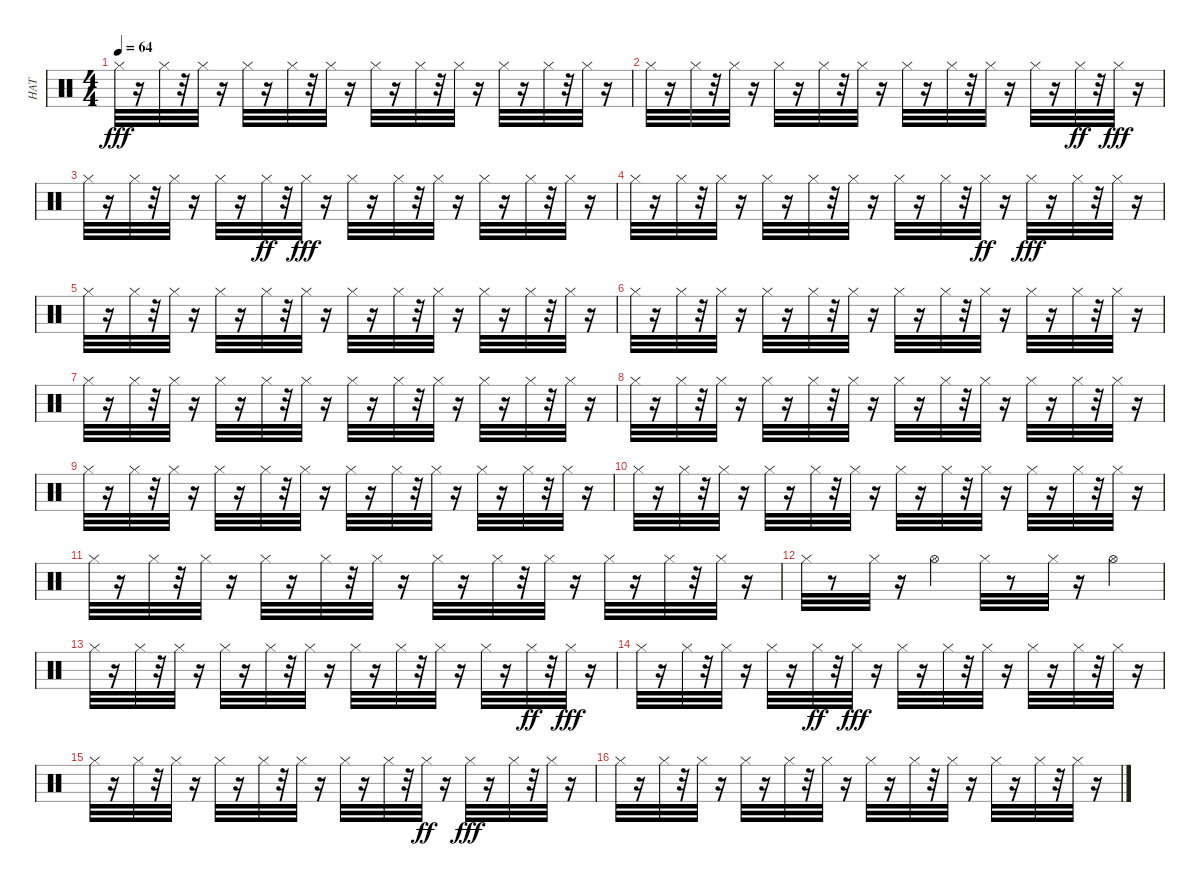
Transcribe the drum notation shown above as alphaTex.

\track ("HAT" "HAT") {instrument percussion}
\staff {score}
\articulation defaults
\ts (4 4)
\tempo 64
\clef neutral
\ks c "Hi-Hat (closed)".32{dy fff}
r.16 "Hi-Hat (closed)".32 r.32 "Hi-Hat (closed)".32 r.16 "Hi-Hat (closed)".32 r.16 "Hi-Hat (closed)".32 r.32 "Hi-Hat (closed)".32 r.16 "Hi-Hat (closed)".32 r.16 "Hi-Hat (closed)".32 r.32 "Hi-Hat (closed)".32 r.16 "Hi-Hat (closed)".32 r.16 "Hi-Hat (closed)".32 r.32 "Hi-Hat (closed)".32 r.16 |
"Hi-Hat (closed)".32 r.16 "Hi-Hat (closed)".32 r.32 "Hi-Hat (closed)".32 r.16 "Hi-Hat (closed)".32 r.16 "Hi-Hat (closed)".32 r.32 "Hi-Hat (closed)".32 r.16 "Hi-Hat (closed)".32 r.16 "Hi-Hat (closed)".32 r.32 "Hi-Hat (closed)".32 r.16 "Hi-Hat (closed)".32 r.16 "Hi-Hat (closed)".32{dy ff} r.32 "Hi-Hat (closed)".32{dy fff} r.16 |
"Hi-Hat (closed)".32 r.16 "Hi-Hat (closed)".32 r.32 "Hi-Hat (closed)".32 r.16 "Hi-Hat (closed)".32 r.16 "Hi-Hat (closed)".32{dy ff} r.32 "Hi-Hat (closed)".32{dy fff} r.16 "Hi-Hat (closed)".32 r.16 "Hi-Hat (closed)".32 r.32 "Hi-Hat (closed)".32 r.16 "Hi-Hat (closed)".32 r.16 "Hi-Hat (closed)".32 r.32 "Hi-Hat (closed)".32 r.16 |
"Hi-Hat (closed)".32 r.16 "Hi-Hat (closed)".32 r.32 "Hi-Hat (closed)".32 r.16 "Hi-Hat (closed)".32 r.16 "Hi-Hat (closed)".32 r.32 "Hi-Hat (closed)".32 r.16 "Hi-Hat (closed)".32 r.16 "Hi-Hat (closed)".32 r.32 "Hi-Hat (closed)".32{dy ff} r.16 "Hi-Hat (closed)".32{dy fff} r.16 "Hi-Hat (closed)".32 r.32 "Hi-Hat (closed)".32 r.16 |
"Hi-Hat (closed)".32 r.16 "Hi-Hat (closed)".32 r.32 "Hi-Hat (closed)".32 r.16 "Hi-Hat (closed)".32 r.16 "Hi-Hat (closed)".32 r.32 "Hi-Hat (closed)".32 r.16 "Hi-Hat (closed)".32 r.16 "Hi-Hat (closed)".32 r.32 "Hi-Hat (closed)".32 r.16 "Hi-Hat (closed)".32 r.16 "Hi-Hat (closed)".32 r.32 "Hi-Hat (closed)".32 r.16 |
"Hi-Hat (closed)".32 r.16 "Hi-Hat (closed)".32 r.32 "Hi-Hat (closed)".32 r.16 "Hi-Hat (closed)".32 r.16 "Hi-Hat (closed)".32 r.32 "Hi-Hat (closed)".32 r.16 "Hi-Hat (closed)".32 r.16 "Hi-Hat (closed)".32 r.32 "Hi-Hat (closed)".32 r.16 "Hi-Hat (closed)".32 r.16 "Hi-Hat (closed)".32 r.32 "Hi-Hat (closed)".32 r.16 |
"Hi-Hat (closed)".32 r.16 "Hi-Hat (closed)".32 r.32 "Hi-Hat (closed)".32 r.16 "Hi-Hat (closed)".32 r.16 "Hi-Hat (closed)".32 r.32 "Hi-Hat (closed)".32 r.16 "Hi-Hat (closed)".32 r.16 "Hi-Hat (closed)".32 r.32 "Hi-Hat (closed)".32 r.16 "Hi-Hat (closed)".32 r.16 "Hi-Hat (closed)".32 r.32 "Hi-Hat (closed)".32 r.16 |
"Hi-Hat (closed)".32 r.16 "Hi-Hat (closed)".32 r.32 "Hi-Hat (closed)".32 r.16 "Hi-Hat (closed)".32 r.16 "Hi-Hat (closed)".32 r.32 "Hi-Hat (closed)".32 r.16 "Hi-Hat (closed)".32 r.16 "Hi-Hat (closed)".32 r.32 "Hi-Hat (closed)".32 r.16 "Hi-Hat (closed)".32 r.16 "Hi-Hat (closed)".32 r.32 "Hi-Hat (closed)".32 r.16 |
"Hi-Hat (closed)".32 r.16 "Hi-Hat (closed)".32 r.32 "Hi-Hat (closed)".32 r.16 "Hi-Hat (closed)".32 r.16 "Hi-Hat (closed)".32 r.32 "Hi-Hat (closed)".32 r.16 "Hi-Hat (closed)".32 r.16 "Hi-Hat (closed)".32 r.32 "Hi-Hat (closed)".32 r.16 "Hi-Hat (closed)".32 r.16 "Hi-Hat (closed)".32 r.32 "Hi-Hat (closed)".32 r.16 |
"Hi-Hat (closed)".32 r.16 "Hi-Hat (closed)".32 r.32 "Hi-Hat (closed)".32 r.16 "Hi-Hat (closed)".32 r.16 "Hi-Hat (closed)".32 r.32 "Hi-Hat (closed)".32 r.16 "Hi-Hat (closed)".32 r.16 "Hi-Hat (closed)".32 r.32 "Hi-Hat (closed)".32 r.16 "Hi-Hat (closed)".32 r.16 "Hi-Hat (closed)".32 r.32 "Hi-Hat (closed)".32 r.16 |
"Hi-Hat (closed)".32 r.16 "Hi-Hat (closed)".32 r.32 "Hi-Hat (closed)".32 r.16 "Hi-Hat (closed)".32 r.16 "Hi-Hat (closed)".32 r.32 "Hi-Hat (closed)".32 r.16 "Hi-Hat (closed)".32 r.16 "Hi-Hat (closed)".32 r.32 "Hi-Hat (closed)".32 r.16 "Hi-Hat (closed)".32 r.16 "Hi-Hat (closed)".32 r.32 "Hi-Hat (closed)".32 r.16 |
"Hi-Hat (closed)".32 r.8 "Hi-Hat (closed)".32 r.16 "Hi-Hat (open)".4 "Hi-Hat (closed)".32 r.8 "Hi-Hat (closed)".32 r.16 "Hi-Hat (open)".4 |
"Hi-Hat (closed)".32 r.16 "Hi-Hat (closed)".32 r.32 "Hi-Hat (closed)".32 r.16 "Hi-Hat (closed)".32 r.16 "Hi-Hat (closed)".32 r.32 "Hi-Hat (closed)".32 r.16 "Hi-Hat (closed)".32 r.16 "Hi-Hat (closed)".32 r.32 "Hi-Hat (closed)".32 r.16 "Hi-Hat (closed)".32 r.16 "Hi-Hat (closed)".32{dy ff} r.32 "Hi-Hat (closed)".32{dy fff} r.16 |
"Hi-Hat (closed)".32 r.16 "Hi-Hat (closed)".32 r.32 "Hi-Hat (closed)".32 r.16 "Hi-Hat (closed)".32 r.16 "Hi-Hat (closed)".32{dy ff} r.32 "Hi-Hat (closed)".32{dy fff} r.16 "Hi-Hat (closed)".32 r.16 "Hi-Hat (closed)".32 r.32 "Hi-Hat (closed)".32 r.16 "Hi-Hat (closed)".32 r.16 "Hi-Hat (closed)".32 r.32 "Hi-Hat (closed)".32 r.16 |
"Hi-Hat (closed)".32 r.16 "Hi-Hat (closed)".32 r.32 "Hi-Hat (closed)".32 r.16 "Hi-Hat (closed)".32 r.16 "Hi-Hat (closed)".32 r.32 "Hi-Hat (closed)".32 r.16 "Hi-Hat (closed)".32 r.16 "Hi-Hat (closed)".32 r.32 "Hi-Hat (closed)".32{dy ff} r.16 "Hi-Hat (closed)".32{dy fff} r.16 "Hi-Hat (closed)".32 r.32 "Hi-Hat (closed)".32 r.16 |
"Hi-Hat (closed)".32 r.16 "Hi-Hat (closed)".32 r.32 "Hi-Hat (closed)".32 r.16 "Hi-Hat (closed)".32 r.16 "Hi-Hat (closed)".32 r.32 "Hi-Hat (closed)".32 r.16 "Hi-Hat (closed)".32 r.16 "Hi-Hat (closed)".32 r.32 "Hi-Hat (closed)".32 r.16 "Hi-Hat (closed)".32 r.16 "Hi-Hat (closed)".32 r.32 "Hi-Hat (closed)".32 r.16
